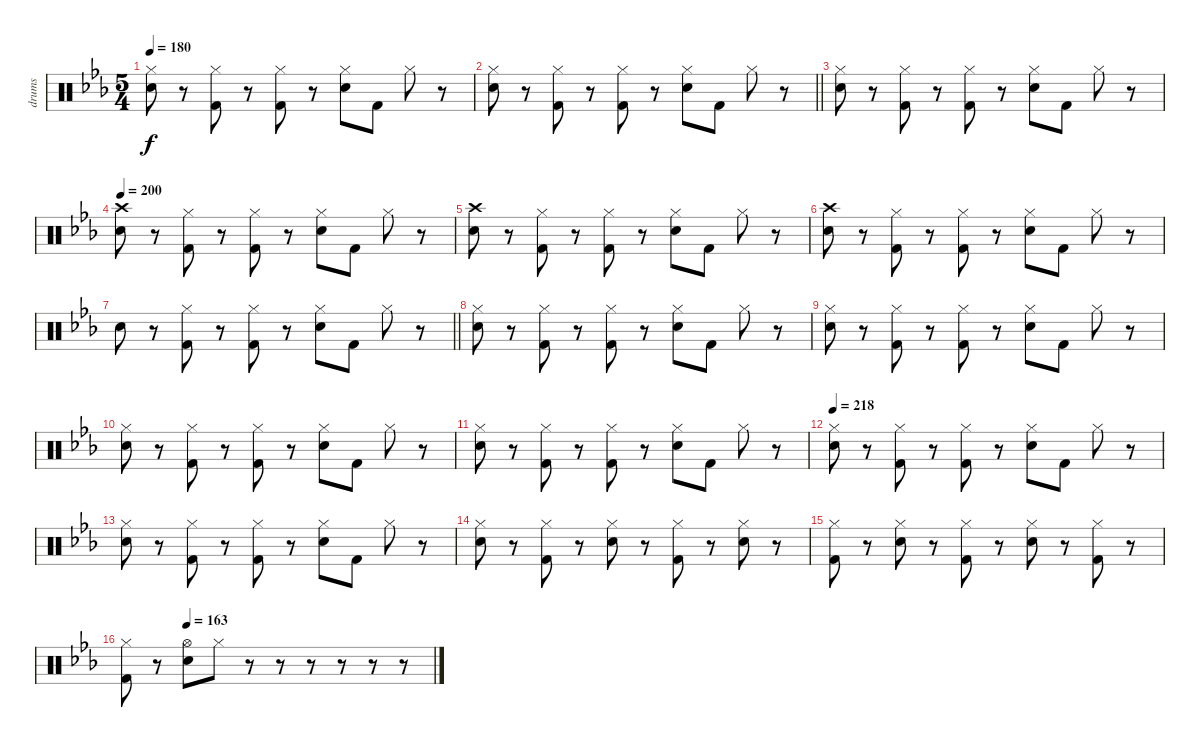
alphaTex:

\track ("drums" "drums") {instrument percussion}
\staff {score}
\articulation defaults
\ts (5 4)
\tempo 180
\clef neutral
\ks cminor
("Hi-Hat (closed)" "Electric Snare (hit)").8{dy f} r.8 ("Hi-Hat (closed)" "Kick (hit) 2").8 r.8 ("Hi-Hat (closed)" "Kick (hit) 2").8 r.8 ("Hi-Hat (closed)" "Electric Snare (hit)").8 "Kick (hit) 2".8 "Hi-Hat (closed)".8 r.8 |
\barLineRight lightlight
("Hi-Hat (closed)" "Electric Snare (hit)").8 r.8 ("Hi-Hat (closed)" "Kick (hit) 2").8 r.8 ("Hi-Hat (closed)" "Kick (hit) 2").8 r.8 ("Hi-Hat (closed)" "Electric Snare (hit)").8 "Kick (hit) 2".8 "Hi-Hat (closed)".8 r.8 |
("Hi-Hat (closed)" "Electric Snare (hit)").8 r.8 ("Hi-Hat (closed)" "Kick (hit) 2").8 r.8 ("Hi-Hat (closed)" "Kick (hit) 2").8 r.8 ("Hi-Hat (closed)" "Electric Snare (hit)").8 "Kick (hit) 2".8 "Hi-Hat (closed)".8 r.8 |
\tempo 200
("Crash high (hit)" "Electric Snare (hit)").8 r.8 ("Hi-Hat (closed)" "Kick (hit) 2").8 r.8 ("Hi-Hat (closed)" "Kick (hit) 2").8 r.8 ("Hi-Hat (closed)" "Electric Snare (hit)").8 "Kick (hit) 2".8 "Hi-Hat (closed)".8 r.8 |
("Crash high (hit)" "Electric Snare (hit)").8 r.8 ("Hi-Hat (closed)" "Kick (hit) 2").8 r.8 ("Hi-Hat (closed)" "Kick (hit) 2").8 r.8 ("Hi-Hat (closed)" "Electric Snare (hit)").8 "Kick (hit) 2".8 "Hi-Hat (closed)".8 r.8 |
("Crash high (hit)" "Electric Snare (hit)").8 r.8 ("Hi-Hat (closed)" "Kick (hit) 2").8 r.8 ("Hi-Hat (closed)" "Kick (hit) 2").8 r.8 ("Hi-Hat (closed)" "Electric Snare (hit)").8 "Kick (hit) 2".8 "Hi-Hat (closed)".8 r.8 |
\barLineRight lightlight "Electric Snare (hit)".8
r.8 ("Hi-Hat (closed)" "Kick (hit) 2").8 r.8 ("Hi-Hat (closed)" "Kick (hit) 2").8 r.8 ("Hi-Hat (closed)" "Electric Snare (hit)").8 "Kick (hit) 2".8 "Hi-Hat (closed)".8 r.8 |
("Hi-Hat (closed)" "Electric Snare (hit)").8 r.8 ("Hi-Hat (closed)" "Kick (hit) 2").8 r.8 ("Hi-Hat (closed)" "Kick (hit) 2").8 r.8 ("Hi-Hat (closed)" "Electric Snare (hit)").8 "Kick (hit) 2".8 "Hi-Hat (closed)".8 r.8 |
("Hi-Hat (closed)" "Electric Snare (hit)").8 r.8 ("Hi-Hat (closed)" "Kick (hit) 2").8 r.8 ("Hi-Hat (closed)" "Kick (hit) 2").8 r.8 ("Hi-Hat (closed)" "Electric Snare (hit)").8 "Kick (hit) 2".8 "Hi-Hat (closed)".8 r.8 |
("Hi-Hat (closed)" "Electric Snare (hit)").8 r.8 ("Hi-Hat (closed)" "Kick (hit) 2").8 r.8 ("Hi-Hat (closed)" "Kick (hit) 2").8 r.8 ("Hi-Hat (closed)" "Electric Snare (hit)").8 "Kick (hit) 2".8 "Hi-Hat (closed)".8 r.8 |
("Hi-Hat (closed)" "Electric Snare (hit)").8 r.8 ("Hi-Hat (closed)" "Kick (hit) 2").8 r.8 ("Hi-Hat (closed)" "Kick (hit) 2").8 r.8 ("Hi-Hat (closed)" "Electric Snare (hit)").8 "Kick (hit) 2".8 "Hi-Hat (closed)".8 r.8 |
\tempo 218
("Hi-Hat (closed)" "Electric Snare (hit)").8 r.8 ("Hi-Hat (closed)" "Kick (hit) 2").8 r.8 ("Hi-Hat (closed)" "Kick (hit) 2").8 r.8 ("Hi-Hat (closed)" "Electric Snare (hit)").8 "Kick (hit) 2".8 "Hi-Hat (closed)".8 r.8 |
("Hi-Hat (closed)" "Electric Snare (hit)").8 r.8 ("Hi-Hat (closed)" "Kick (hit) 2").8 r.8 ("Hi-Hat (closed)" "Kick (hit) 2").8 r.8 ("Hi-Hat (closed)" "Electric Snare (hit)").8 "Kick (hit) 2".8 "Hi-Hat (closed)".8 r.8 |
("Hi-Hat (closed)" "Electric Snare (hit)").8 r.8 ("Hi-Hat (closed)" "Kick (hit) 2").8 r.8 ("Hi-Hat (closed)" "Electric Snare (hit)").8 r.8 ("Hi-Hat (closed)" "Kick (hit) 2").8 r.8 ("Hi-Hat (closed)" "Electric Snare (hit)").8 r.8 |
("Hi-Hat (closed)" "Kick (hit) 2").8 r.8 ("Hi-Hat (closed)" "Electric Snare (hit)").8 r.8 ("Hi-Hat (closed)" "Kick (hit) 2").8 r.8 ("Hi-Hat (closed)" "Electric Snare (hit)").8 r.8 ("Hi-Hat (closed)" "Kick (hit) 2").8 r.8 |
\tempo (163 0.2)
("Hi-Hat (closed)" "Kick (hit) 2").8 r.8 ("Hi-Hat (open)" "Electric Snare (hit)").8 "Hi-Hat (closed)".8 r.8 r.8 r.8 r.8 r.8 r.8
